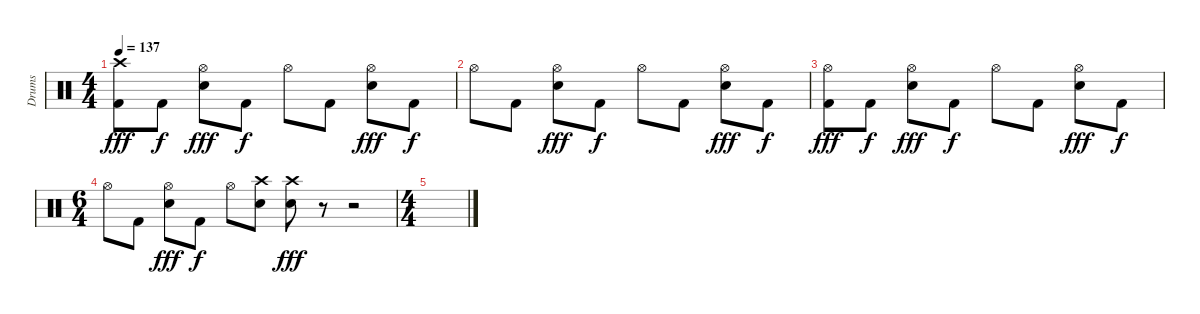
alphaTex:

\track ("Drums" "Drums") {instrument percussion}
\staff {score}
\articulation defaults
\ts (4 4)
\tempo 137
\clef neutral
\ks c
("Crash high (hit)" "Kick (hit) 2").8{dy fff volume 13} "Kick (hit) 2".8{dy f} ("Hi-Hat (open)" "Snare (hit) 2").8{dy fff} "Kick (hit) 2".8{dy f} "Hi-Hat (open)".8 "Kick (hit) 2".8 ("Hi-Hat (open)" "Snare (hit) 2").8{dy fff} "Kick (hit) 2".8{dy f} |
"Hi-Hat (open)".8 "Kick (hit) 2".8 ("Hi-Hat (open)" "Snare (hit) 2").8{dy fff} "Kick (hit) 2".8{dy f} "Hi-Hat (open)".8 "Kick (hit) 2".8 ("Hi-Hat (open)" "Snare (hit) 2").8{dy fff} "Kick (hit) 2".8{dy f} |
("Hi-Hat (open)" "Kick (hit) 2").8{dy fff volume 13} "Kick (hit) 2".8{dy f} ("Hi-Hat (open)" "Snare (hit) 2").8{dy fff} "Kick (hit) 2".8{dy f} "Hi-Hat (open)".8 "Kick (hit) 2".8 ("Hi-Hat (open)" "Snare (hit) 2").8{dy fff} "Kick (hit) 2".8{dy f} |
\ts (6 4)
"Hi-Hat (open)".8 "Kick (hit) 2".8 ("Hi-Hat (open)" "Snare (hit) 2").8{dy fff} "Kick (hit) 2".8{dy f} "Hi-Hat (open)".8 ("Crash high (hit)" "Snare (hit) 2").8 ("Crash high (hit)" "Snare (hit) 2").8{dy fff} r.8 r.2{volume 0} |
\ts (4 4)
